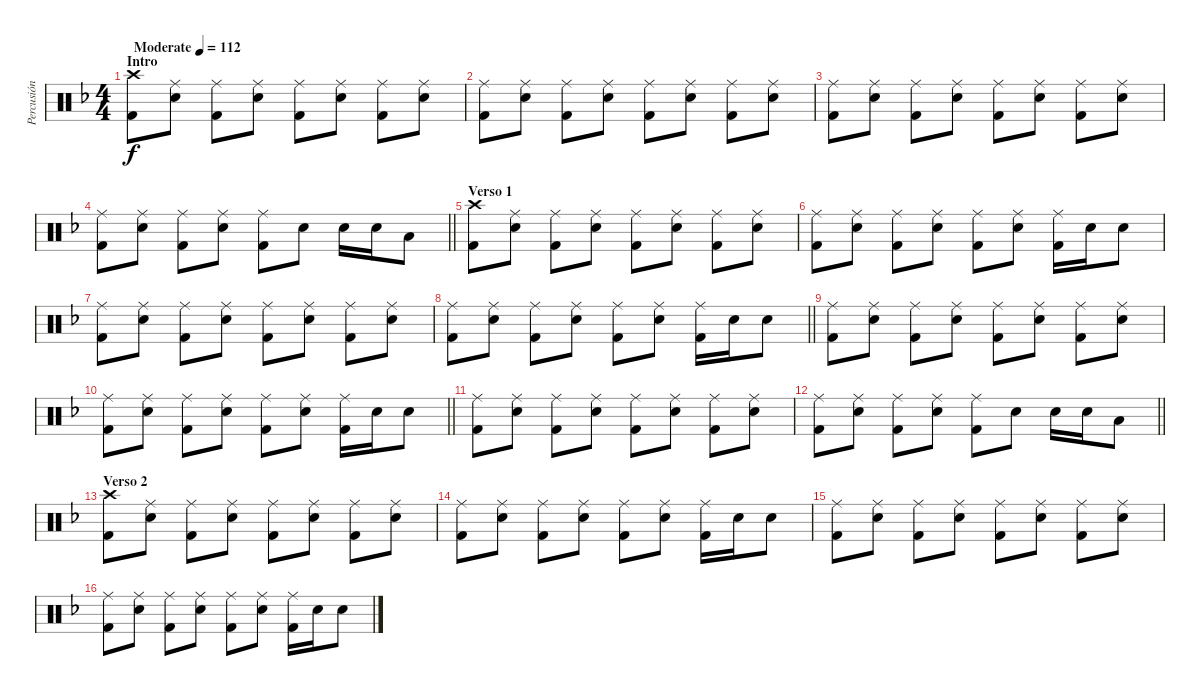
\track ("Percusión" "Percusión") {instrument percussion}
\staff {score}
\articulation defaults
\ts (4 4)
\section ("" "Intro")
\tempo (112 "Moderate")
\clef neutral
\ks dminor
("Crash high (hit)" "Kick (hit) 2").8{dy f} ("Ride (middle)" "Snare (hit) 2").8 ("Ride (middle)" "Kick (hit) 2").8 ("Ride (middle)" "Snare (hit) 2").8 ("Ride (middle)" "Kick (hit) 2").8 ("Ride (middle)" "Snare (hit) 2").8 ("Ride (middle)" "Kick (hit) 2").8 ("Ride (middle)" "Snare (hit) 2").8 |
("Ride (middle)" "Kick (hit) 2").8 ("Ride (middle)" "Snare (hit) 2").8 ("Ride (middle)" "Kick (hit) 2").8 ("Ride (middle)" "Snare (hit) 2").8 ("Ride (middle)" "Kick (hit) 2").8 ("Ride (middle)" "Snare (hit) 2").8 ("Ride (middle)" "Kick (hit) 2").8 ("Ride (middle)" "Snare (hit) 2").8 |
("Ride (middle)" "Kick (hit) 2").8 ("Ride (middle)" "Snare (hit) 2").8 ("Ride (middle)" "Kick (hit) 2").8 ("Ride (middle)" "Snare (hit) 2").8 ("Ride (middle)" "Kick (hit) 2").8 ("Ride (middle)" "Snare (hit) 2").8 ("Ride (middle)" "Kick (hit) 2").8 ("Ride (middle)" "Snare (hit) 2").8 |
\barLineRight lightlight
("Ride (middle)" "Kick (hit) 2").8 ("Ride (middle)" "Snare (hit) 2").8 ("Ride (middle)" "Kick (hit) 2").8 ("Ride (middle)" "Snare (hit) 2").8 ("Ride (middle)" "Kick (hit) 2").8 "Snare (hit) 2".8 "Snare (hit) 2".16 "Snare (hit) 2".16 "Low Tom (hit)".8 |
\section ("" "Verso 1")
("Crash high (hit)" "Kick (hit) 2").8 ("Ride (middle)" "Snare (hit) 2").8 ("Ride (middle)" "Kick (hit) 2").8 ("Ride (middle)" "Snare (hit) 2").8 ("Ride (middle)" "Kick (hit) 2").8 ("Ride (middle)" "Snare (hit) 2").8 ("Ride (middle)" "Kick (hit) 2").8 ("Ride (middle)" "Snare (hit) 2").8 |
("Ride (middle)" "Kick (hit) 2").8 ("Ride (middle)" "Snare (hit) 2").8 ("Ride (middle)" "Kick (hit) 2").8 ("Ride (middle)" "Snare (hit) 2").8 ("Ride (middle)" "Kick (hit) 2").8 ("Ride (middle)" "Snare (hit) 2").8 ("Ride (middle)" "Kick (hit) 2").16 "Snare (hit) 2".16 "Snare (hit) 2".8 |
("Ride (middle)" "Kick (hit) 2").8 ("Ride (middle)" "Snare (hit) 2").8 ("Ride (middle)" "Kick (hit) 2").8 ("Ride (middle)" "Snare (hit) 2").8 ("Ride (middle)" "Kick (hit) 2").8 ("Ride (middle)" "Snare (hit) 2").8 ("Ride (middle)" "Kick (hit) 2").8 ("Ride (middle)" "Snare (hit) 2").8 |
\barLineRight lightlight
("Ride (middle)" "Kick (hit) 2").8 ("Ride (middle)" "Snare (hit) 2").8 ("Ride (middle)" "Kick (hit) 2").8 ("Ride (middle)" "Snare (hit) 2").8 ("Ride (middle)" "Kick (hit) 2").8 ("Ride (middle)" "Snare (hit) 2").8 ("Ride (middle)" "Kick (hit) 2").16 "Snare (hit) 2".16 "Snare (hit) 2".8 |
("Ride (middle)" "Kick (hit) 2").8 ("Ride (middle)" "Snare (hit) 2").8 ("Ride (middle)" "Kick (hit) 2").8 ("Ride (middle)" "Snare (hit) 2").8 ("Ride (middle)" "Kick (hit) 2").8 ("Ride (middle)" "Snare (hit) 2").8 ("Ride (middle)" "Kick (hit) 2").8 ("Ride (middle)" "Snare (hit) 2").8 |
\barLineRight lightlight
("Ride (middle)" "Kick (hit) 2").8 ("Ride (middle)" "Snare (hit) 2").8 ("Ride (middle)" "Kick (hit) 2").8 ("Ride (middle)" "Snare (hit) 2").8 ("Ride (middle)" "Kick (hit) 2").8 ("Ride (middle)" "Snare (hit) 2").8 ("Ride (middle)" "Kick (hit) 2").16 "Snare (hit) 2".16 "Snare (hit) 2".8 |
("Ride (middle)" "Kick (hit) 2").8 ("Ride (middle)" "Snare (hit) 2").8 ("Ride (middle)" "Kick (hit) 2").8 ("Ride (middle)" "Snare (hit) 2").8 ("Ride (middle)" "Kick (hit) 2").8 ("Ride (middle)" "Snare (hit) 2").8 ("Ride (middle)" "Kick (hit) 2").8 ("Ride (middle)" "Snare (hit) 2").8 |
\barLineRight lightlight
("Ride (middle)" "Kick (hit) 2").8 ("Ride (middle)" "Snare (hit) 2").8 ("Ride (middle)" "Kick (hit) 2").8 ("Ride (middle)" "Snare (hit) 2").8 ("Ride (middle)" "Kick (hit) 2").8 "Snare (hit) 2".8 "Snare (hit) 2".16 "Snare (hit) 2".16 "Low Tom (hit)".8 |
\section ("" "Verso 2")
("Crash high (hit)" "Kick (hit) 2").8 ("Ride (middle)" "Snare (hit) 2").8 ("Ride (middle)" "Kick (hit) 2").8 ("Ride (middle)" "Snare (hit) 2").8 ("Ride (middle)" "Kick (hit) 2").8 ("Ride (middle)" "Snare (hit) 2").8 ("Ride (middle)" "Kick (hit) 2").8 ("Ride (middle)" "Snare (hit) 2").8 |
("Ride (middle)" "Kick (hit) 2").8 ("Ride (middle)" "Snare (hit) 2").8 ("Ride (middle)" "Kick (hit) 2").8 ("Ride (middle)" "Snare (hit) 2").8 ("Ride (middle)" "Kick (hit) 2").8 ("Ride (middle)" "Snare (hit) 2").8 ("Ride (middle)" "Kick (hit) 2").16 "Snare (hit) 2".16 "Snare (hit) 2".8 |
("Ride (middle)" "Kick (hit) 2").8 ("Ride (middle)" "Snare (hit) 2").8 ("Ride (middle)" "Kick (hit) 2").8 ("Ride (middle)" "Snare (hit) 2").8 ("Ride (middle)" "Kick (hit) 2").8 ("Ride (middle)" "Snare (hit) 2").8 ("Ride (middle)" "Kick (hit) 2").8 ("Ride (middle)" "Snare (hit) 2").8 |
("Ride (middle)" "Kick (hit) 2").8 ("Ride (middle)" "Snare (hit) 2").8 ("Ride (middle)" "Kick (hit) 2").8 ("Ride (middle)" "Snare (hit) 2").8 ("Ride (middle)" "Kick (hit) 2").8 ("Ride (middle)" "Snare (hit) 2").8 ("Ride (middle)" "Kick (hit) 2").16 "Snare (hit) 2".16 "Snare (hit) 2".8
